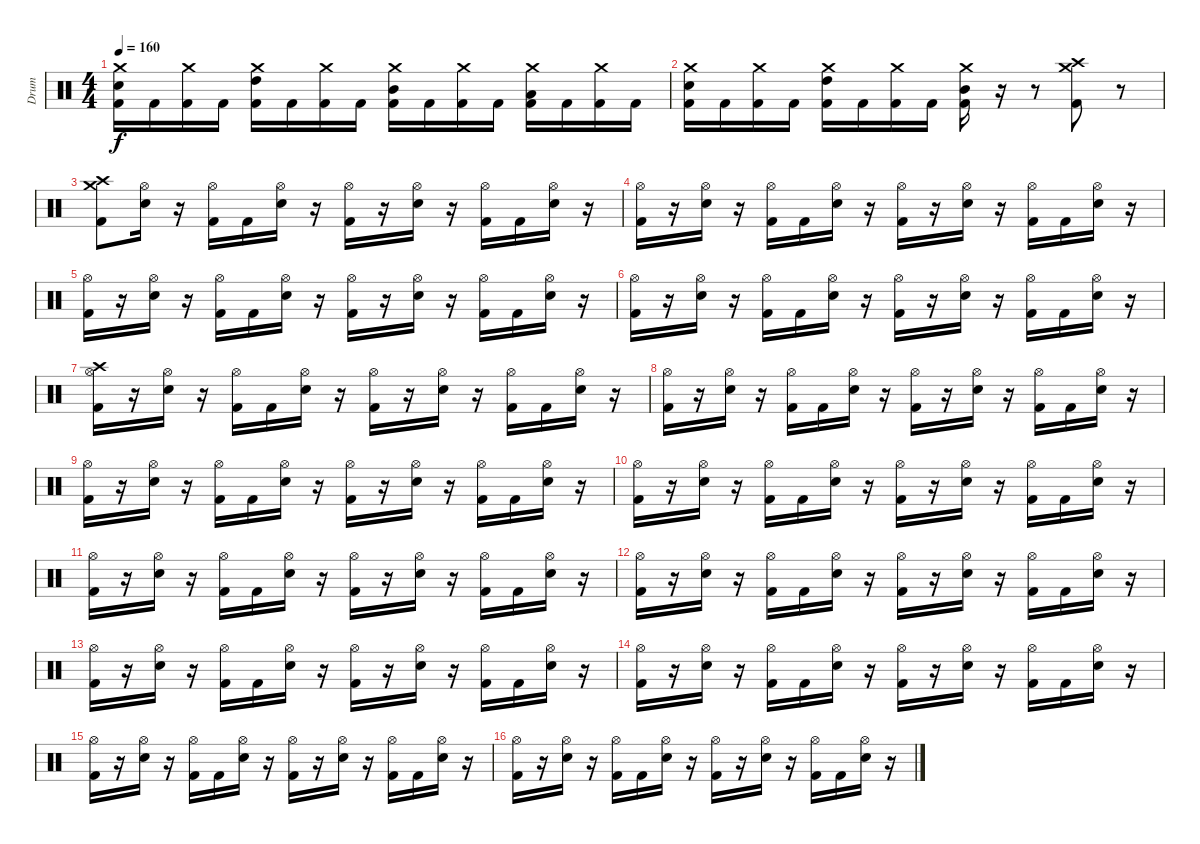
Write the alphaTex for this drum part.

\track ("Drum" "Drum") {instrument percussion}
\staff {score}
\articulation defaults
\ts (4 4)
\tempo 160
\clef neutral
\ks c
("Electric Snare (hit)" "Crash medium (hit)" "Kick (hit) 2").16{dy f} "Kick (hit) 2".16 ("Crash medium (hit)" "Kick (hit) 2").16 "Kick (hit) 2".16 ("High Tom (hit)" "Crash medium (hit)" "Kick (hit) 2").16 "Kick (hit) 2".16 ("Crash medium (hit)" "Kick (hit) 2").16 "Kick (hit) 2".16 ("Mid Tom (hit)" "Crash medium (hit)" "Kick (hit) 2").16 "Kick (hit) 2".16 ("Crash medium (hit)" "Kick (hit) 2").16 "Kick (hit) 2".16 ("Low Floor Tom (hit)" "Crash medium (hit)" "Kick (hit) 2").16 "Kick (hit) 2".16 ("Crash medium (hit)" "Kick (hit) 2").16 "Kick (hit) 2".16 |
("Electric Snare (hit)" "Crash medium (hit)" "Kick (hit) 2").16 "Kick (hit) 2".16 ("Crash medium (hit)" "Kick (hit) 2").16 "Kick (hit) 2".16 ("High Tom (hit)" "Crash medium (hit)" "Kick (hit) 2").16 "Kick (hit) 2".16 ("Crash medium (hit)" "Kick (hit) 2").16 "Kick (hit) 2".16 ("Mid Tom (hit)" "Crash medium (hit)" "Kick (hit) 2").16 r.16 r.8 ("Crash high (hit)" "Crash medium (hit)" "Kick (hit) 2").8 r.8 |
("Crash high (hit)" "Crash medium (hit)" "Kick (hit) 2").8 ("Hi-Hat (open)" "Electric Snare (hit)").16 r.16 ("Hi-Hat (open)" "Kick (hit) 2").16 "Kick (hit) 2".16 ("Hi-Hat (open)" "Electric Snare (hit)").16 r.16 ("Hi-Hat (open)" "Kick (hit) 2").16 r.16 ("Hi-Hat (open)" "Electric Snare (hit)").16 r.16 ("Hi-Hat (open)" "Kick (hit) 2").16 "Kick (hit) 2".16 ("Hi-Hat (open)" "Electric Snare (hit)").16 r.16 |
("Hi-Hat (open)" "Kick (hit) 2").16 r.16 ("Hi-Hat (open)" "Electric Snare (hit)").16 r.16 ("Hi-Hat (open)" "Kick (hit) 2").16 "Kick (hit) 2".16 ("Hi-Hat (open)" "Electric Snare (hit)").16 r.16 ("Hi-Hat (open)" "Kick (hit) 2").16 r.16 ("Hi-Hat (open)" "Electric Snare (hit)").16 r.16 ("Hi-Hat (open)" "Kick (hit) 2").16 "Kick (hit) 2".16 ("Hi-Hat (open)" "Electric Snare (hit)").16 r.16 |
("Hi-Hat (open)" "Kick (hit) 2").16 r.16 ("Hi-Hat (open)" "Electric Snare (hit)").16 r.16 ("Hi-Hat (open)" "Kick (hit) 2").16 "Kick (hit) 2".16 ("Hi-Hat (open)" "Electric Snare (hit)").16 r.16 ("Hi-Hat (open)" "Kick (hit) 2").16 r.16 ("Hi-Hat (open)" "Electric Snare (hit)").16 r.16 ("Hi-Hat (open)" "Kick (hit) 2").16 "Kick (hit) 2".16 ("Hi-Hat (open)" "Electric Snare (hit)").16 r.16 |
("Hi-Hat (open)" "Kick (hit) 2").16 r.16 ("Hi-Hat (open)" "Electric Snare (hit)").16 r.16 ("Hi-Hat (open)" "Kick (hit) 2").16 "Kick (hit) 2".16 ("Hi-Hat (open)" "Electric Snare (hit)").16 r.16 ("Hi-Hat (open)" "Kick (hit) 2").16 r.16 ("Hi-Hat (open)" "Electric Snare (hit)").16 r.16 ("Hi-Hat (open)" "Kick (hit) 2").16 "Kick (hit) 2".16 ("Hi-Hat (open)" "Electric Snare (hit)").16 r.16 |
("Crash high (hit)" "Hi-Hat (open)" "Kick (hit) 2").16 r.16 ("Hi-Hat (open)" "Electric Snare (hit)").16 r.16 ("Hi-Hat (open)" "Kick (hit) 2").16 "Kick (hit) 2".16 ("Hi-Hat (open)" "Electric Snare (hit)").16 r.16 ("Hi-Hat (open)" "Kick (hit) 2").16 r.16 ("Hi-Hat (open)" "Electric Snare (hit)").16 r.16 ("Hi-Hat (open)" "Kick (hit) 2").16 "Kick (hit) 2".16 ("Hi-Hat (open)" "Electric Snare (hit)").16 r.16 |
("Hi-Hat (open)" "Kick (hit) 2").16 r.16 ("Hi-Hat (open)" "Electric Snare (hit)").16 r.16 ("Hi-Hat (open)" "Kick (hit) 2").16 "Kick (hit) 2".16 ("Hi-Hat (open)" "Electric Snare (hit)").16 r.16 ("Hi-Hat (open)" "Kick (hit) 2").16 r.16 ("Hi-Hat (open)" "Electric Snare (hit)").16 r.16 ("Hi-Hat (open)" "Kick (hit) 2").16 "Kick (hit) 2".16 ("Hi-Hat (open)" "Electric Snare (hit)").16 r.16 |
("Hi-Hat (open)" "Kick (hit) 2").16 r.16 ("Hi-Hat (open)" "Electric Snare (hit)").16 r.16 ("Hi-Hat (open)" "Kick (hit) 2").16 "Kick (hit) 2".16 ("Hi-Hat (open)" "Electric Snare (hit)").16 r.16 ("Hi-Hat (open)" "Kick (hit) 2").16 r.16 ("Hi-Hat (open)" "Electric Snare (hit)").16 r.16 ("Hi-Hat (open)" "Kick (hit) 2").16 "Kick (hit) 2".16 ("Hi-Hat (open)" "Electric Snare (hit)").16 r.16 |
("Hi-Hat (open)" "Kick (hit) 2").16 r.16 ("Hi-Hat (open)" "Electric Snare (hit)").16 r.16 ("Hi-Hat (open)" "Kick (hit) 2").16 "Kick (hit) 2".16 ("Hi-Hat (open)" "Electric Snare (hit)").16 r.16 ("Hi-Hat (open)" "Kick (hit) 2").16 r.16 ("Hi-Hat (open)" "Electric Snare (hit)").16 r.16 ("Hi-Hat (open)" "Kick (hit) 2").16 "Kick (hit) 2".16 ("Hi-Hat (open)" "Electric Snare (hit)").16 r.16 |
("Hi-Hat (open)" "Kick (hit) 2").16 r.16 ("Hi-Hat (open)" "Electric Snare (hit)").16 r.16 ("Hi-Hat (open)" "Kick (hit) 2").16 "Kick (hit) 2".16 ("Hi-Hat (open)" "Electric Snare (hit)").16 r.16 ("Hi-Hat (open)" "Kick (hit) 2").16 r.16 ("Hi-Hat (open)" "Electric Snare (hit)").16 r.16 ("Hi-Hat (open)" "Kick (hit) 2").16 "Kick (hit) 2".16 ("Hi-Hat (open)" "Electric Snare (hit)").16 r.16 |
("Hi-Hat (open)" "Kick (hit) 2").16 r.16 ("Hi-Hat (open)" "Electric Snare (hit)").16 r.16 ("Hi-Hat (open)" "Kick (hit) 2").16 "Kick (hit) 2".16 ("Hi-Hat (open)" "Electric Snare (hit)").16 r.16 ("Hi-Hat (open)" "Kick (hit) 2").16 r.16 ("Hi-Hat (open)" "Electric Snare (hit)").16 r.16 ("Hi-Hat (open)" "Kick (hit) 2").16 "Kick (hit) 2".16 ("Hi-Hat (open)" "Electric Snare (hit)").16 r.16 |
("Hi-Hat (open)" "Kick (hit) 2").16 r.16 ("Hi-Hat (open)" "Electric Snare (hit)").16 r.16 ("Hi-Hat (open)" "Kick (hit) 2").16 "Kick (hit) 2".16 ("Hi-Hat (open)" "Electric Snare (hit)").16 r.16 ("Hi-Hat (open)" "Kick (hit) 2").16 r.16 ("Hi-Hat (open)" "Electric Snare (hit)").16 r.16 ("Hi-Hat (open)" "Kick (hit) 2").16 "Kick (hit) 2".16 ("Hi-Hat (open)" "Electric Snare (hit)").16 r.16 |
("Hi-Hat (open)" "Kick (hit) 2").16 r.16 ("Hi-Hat (open)" "Electric Snare (hit)").16 r.16 ("Hi-Hat (open)" "Kick (hit) 2").16 "Kick (hit) 2".16 ("Hi-Hat (open)" "Electric Snare (hit)").16 r.16 ("Hi-Hat (open)" "Kick (hit) 2").16 r.16 ("Hi-Hat (open)" "Electric Snare (hit)").16 r.16 ("Hi-Hat (open)" "Kick (hit) 2").16 "Kick (hit) 2".16 ("Hi-Hat (open)" "Electric Snare (hit)").16 r.16 |
("Hi-Hat (open)" "Kick (hit) 2").16 r.16 ("Hi-Hat (open)" "Electric Snare (hit)").16 r.16 ("Hi-Hat (open)" "Kick (hit) 2").16 "Kick (hit) 2".16 ("Hi-Hat (open)" "Electric Snare (hit)").16 r.16 ("Hi-Hat (open)" "Kick (hit) 2").16 r.16 ("Hi-Hat (open)" "Electric Snare (hit)").16 r.16 ("Hi-Hat (open)" "Kick (hit) 2").16 "Kick (hit) 2".16 ("Hi-Hat (open)" "Electric Snare (hit)").16 r.16 |
("Hi-Hat (open)" "Kick (hit) 2").16 r.16 ("Hi-Hat (open)" "Electric Snare (hit)").16 r.16 ("Hi-Hat (open)" "Kick (hit) 2").16 "Kick (hit) 2".16 ("Hi-Hat (open)" "Electric Snare (hit)").16 r.16 ("Hi-Hat (open)" "Kick (hit) 2").16 r.16 ("Hi-Hat (open)" "Electric Snare (hit)").16 r.16 ("Hi-Hat (open)" "Kick (hit) 2").16 "Kick (hit) 2".16 ("Hi-Hat (open)" "Electric Snare (hit)").16 r.16
